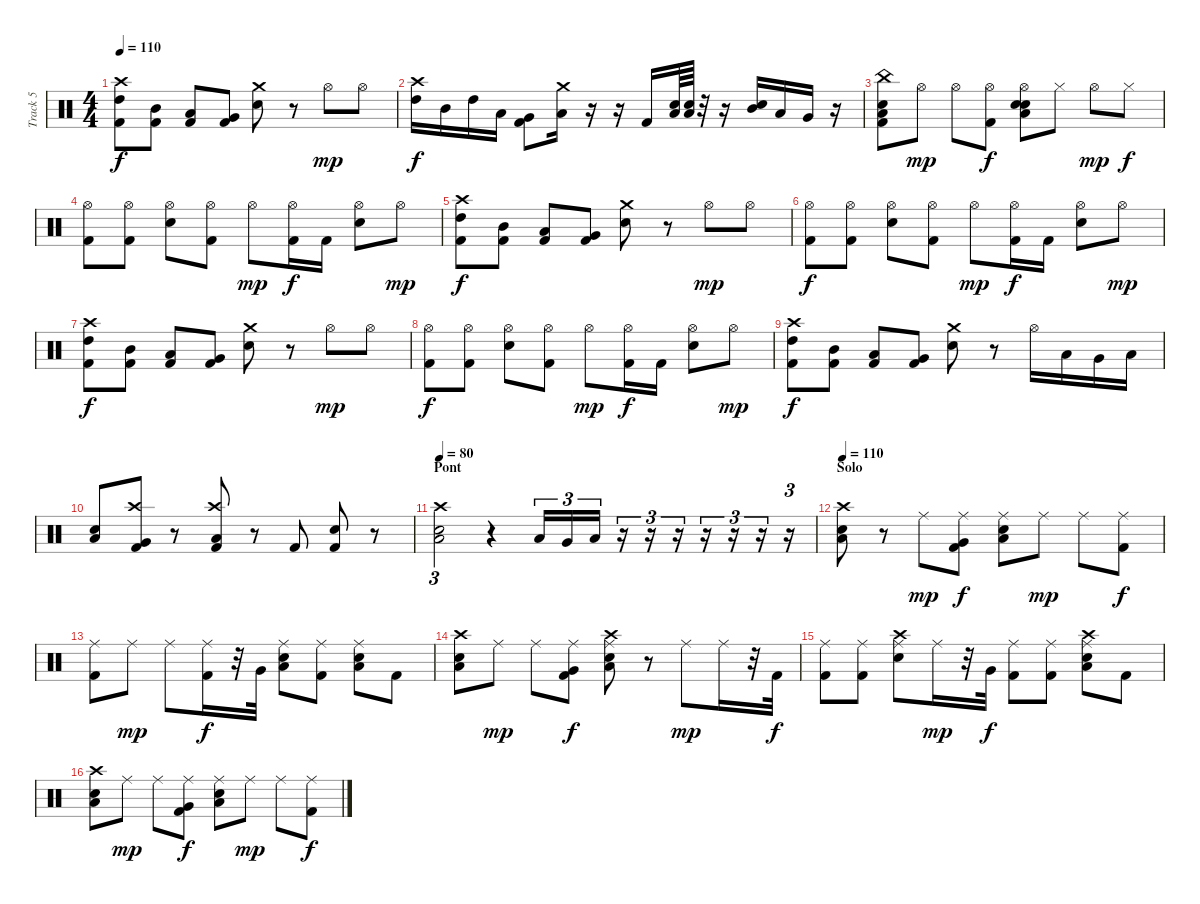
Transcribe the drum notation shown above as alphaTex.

\track ("Track 5" "Track 5") {instrument percussion}
\staff {score}
\articulation defaults
\ts (4 4)
\tempo 110
\clef neutral
\ks c
("High Tom (hit)" "Kick (hit) 2" "Crash high (hit)").8{dy f} ("Mid Tom (hit)" "Kick (hit) 2").8 ("Low Tom (hit)" "Kick (hit) 2").8 ("Very Low Tom (hit)" "Kick (hit) 2").8 ("Crash medium (hit)" "Snare (hit) 2").8 r.8 "Hi-Hat (open)".8{dy mp} "Hi-Hat (open)".8 |
("High Tom (hit)" "Crash high (hit)").16{dy f} "Mid Tom (hit)".16 "High Tom (hit)".16 "Low Tom (hit)".16 ("Very Low Tom (hit)" "Kick (hit) 2").8 ("Low Tom (hit)" "Crash medium (hit)").16 r.16 r.16 "Kick (hit) 2".16 ("Snare (hit) 2" "Low Tom (hit)").64 ("Snare (hit) 2" "Low Tom (hit)").64 r.32 r.16 ("Snare (hit) 2" "Mid Tom (hit)").16 "Low Tom (hit)".16 "Very Low Tom (hit)".16 r.16 |
("Kick (hit) 2" "Low Tom (hit)" "China (hit)" "Snare (hit) 2").8 "Hi-Hat (open)".8{dy mp} "Hi-Hat (open)".8 ("Hi-Hat (open)" "Kick (hit) 2").8{dy f} ("Hi-Hat (open)" "Snare (hit) 2" "Electric Snare (hit)" "Low Tom (hit)").8 "Hi-Hat (closed)".8 "Hi-Hat (open)".8{dy mp} "Hi-Hat (closed)".8{dy f} |
("Hi-Hat (open)" "Kick (hit) 2").8 ("Hi-Hat (open)" "Kick (hit) 2").8 ("Hi-Hat (open)" "Snare (hit) 2").8 ("Hi-Hat (open)" "Kick (hit) 2").8 "Hi-Hat (open)".8{dy mp} ("Hi-Hat (open)" "Kick (hit) 2").16{dy f} "Kick (hit) 2".16 ("Hi-Hat (open)" "Snare (hit) 2").8 "Hi-Hat (open)".8{dy mp} |
("High Tom (hit)" "Kick (hit) 2" "Crash high (hit)").8{dy f} ("Mid Tom (hit)" "Kick (hit) 2").8 ("Low Tom (hit)" "Kick (hit) 2").8 ("Very Low Tom (hit)" "Kick (hit) 2").8 ("Crash medium (hit)" "Snare (hit) 2").8 r.8 "Hi-Hat (open)".8{dy mp} "Hi-Hat (open)".8 |
("Hi-Hat (open)" "Kick (hit) 2").8{dy f} ("Hi-Hat (open)" "Kick (hit) 2").8 ("Hi-Hat (open)" "Snare (hit) 2").8 ("Hi-Hat (open)" "Kick (hit) 2").8 "Hi-Hat (open)".8{dy mp} ("Hi-Hat (open)" "Kick (hit) 2").16{dy f} "Kick (hit) 2".16 ("Hi-Hat (open)" "Snare (hit) 2").8 "Hi-Hat (open)".8{dy mp} |
("High Tom (hit)" "Kick (hit) 2" "Crash high (hit)").8{dy f} ("Mid Tom (hit)" "Kick (hit) 2").8 ("Low Tom (hit)" "Kick (hit) 2").8 ("Very Low Tom (hit)" "Kick (hit) 2").8 ("Crash medium (hit)" "Snare (hit) 2").8 r.8 "Hi-Hat (open)".8{dy mp} "Hi-Hat (open)".8 |
("Hi-Hat (open)" "Kick (hit) 2").8{dy f} ("Hi-Hat (open)" "Kick (hit) 2").8 ("Hi-Hat (open)" "Snare (hit) 2").8 ("Hi-Hat (open)" "Kick (hit) 2").8 "Hi-Hat (open)".8{dy mp} ("Hi-Hat (open)" "Kick (hit) 2").16{dy f} "Kick (hit) 2".16 ("Hi-Hat (open)" "Snare (hit) 2").8 "Hi-Hat (open)".8{dy mp} |
("High Tom (hit)" "Kick (hit) 2" "Crash high (hit)").8{dy f} ("Mid Tom (hit)" "Kick (hit) 2").8 ("Low Tom (hit)" "Kick (hit) 2").8 ("Very Low Tom (hit)" "Kick (hit) 2").8 ("Crash medium (hit)" "Snare (hit) 2").8 r.8 "Hi-Hat (open)".16 "Low Tom (hit)".16 "Very Low Tom (hit)".16 "Low Floor Tom (hit)".16 |
("Low Tom (hit)" "Electric Snare (hit)").8 ("Kick (hit) 2" "Very Low Tom (hit)" "Crash high (hit)").8 r.8 ("Kick (hit) 2" "Low Floor Tom (hit)" "Crash high (hit)").8 r.8 "Kick (hit) 2".8 ("Kick (hit) 2" "Electric Snare (hit)").8 r.8 |
\section ("" "Pont")
\tempo 80
("Snare (hit) 2" "Crash high (hit)" "Low Tom (hit)").2{tu (3 2)} r.4 "Low Tom (hit)".16{tu (3 2)} "Very Low Tom (hit)".16{tu (3 2)} "Low Floor Tom (hit)".16{tu (3 2)} r.16{tu (3 2)} r.16{tu (3 2)} r.16{tu (3 2)} r.16{tu (3 2)} r.16{tu (3 2)} r.16{tu (3 2)} r.16{tu (3 2)} |
\section ("" "Solo")
\tempo 110
("Snare (hit) 2" "Crash high (hit)" "Low Tom (hit)").8 r.8 "Ride (middle)".8{dy mp} ("Ride (middle)" "Kick (hit) 2" "Very Low Tom (hit)").8{dy f} ("Ride (middle)" "Electric Snare (hit)" "Low Tom (hit)").8 "Ride (middle)".8{dy mp} "Ride (middle)".8 ("Ride (middle)" "Kick (hit) 2").8{dy f} |
("Ride (middle)" "Kick (hit) 2").8 "Ride (middle)".8{dy mp} "Ride (middle)".8 ("Ride (middle)" "Kick (hit) 2").16{dy f} r.32 "Very Low Tom (hit)".32 ("Ride (middle)" "Low Tom (hit)" "Snare (hit) 2").8 ("Ride (middle)" "Kick (hit) 2").8 ("Ride (middle)" "Low Tom (hit)" "Snare (hit) 2").8 "Kick (hit) 2".8 |
("Snare (hit) 2" "Crash high (hit)" "Low Tom (hit)").8 "Ride (middle)".8{dy mp} "Ride (middle)".8 ("Ride (middle)" "Kick (hit) 2" "Very Low Tom (hit)").8{dy f} ("Ride (middle)" "Electric Snare (hit)" "Low Tom (hit)" "Crash high (hit)").8 r.8 "Ride (middle)".8{dy mp} "Ride (middle)".16 r.32 "Kick (hit) 2".32{dy f} |
("Ride (middle)" "Kick (hit) 2").8 ("Ride (middle)" "Kick (hit) 2").8 ("Ride (middle)" "Snare (hit) 2" "Crash high (hit)").8 "Ride (middle)".16{dy mp} r.32 "Very Low Tom (hit)".32{dy f} ("Ride (middle)" "Kick (hit) 2").8 ("Ride (middle)" "Kick (hit) 2").8 ("Ride (middle)" "Low Tom (hit)" "Snare (hit) 2" "Crash high (hit)").8 "Kick (hit) 2".8 |
("Snare (hit) 2" "Crash high (hit)" "Low Tom (hit)").8 "Ride (middle)".8{dy mp} "Ride (middle)".8 ("Ride (middle)" "Kick (hit) 2" "Very Low Tom (hit)").8{dy f} ("Ride (middle)" "Electric Snare (hit)" "Low Tom (hit)").8 "Ride (middle)".8{dy mp} "Ride (middle)".8 ("Ride (middle)" "Kick (hit) 2").8{dy f}
